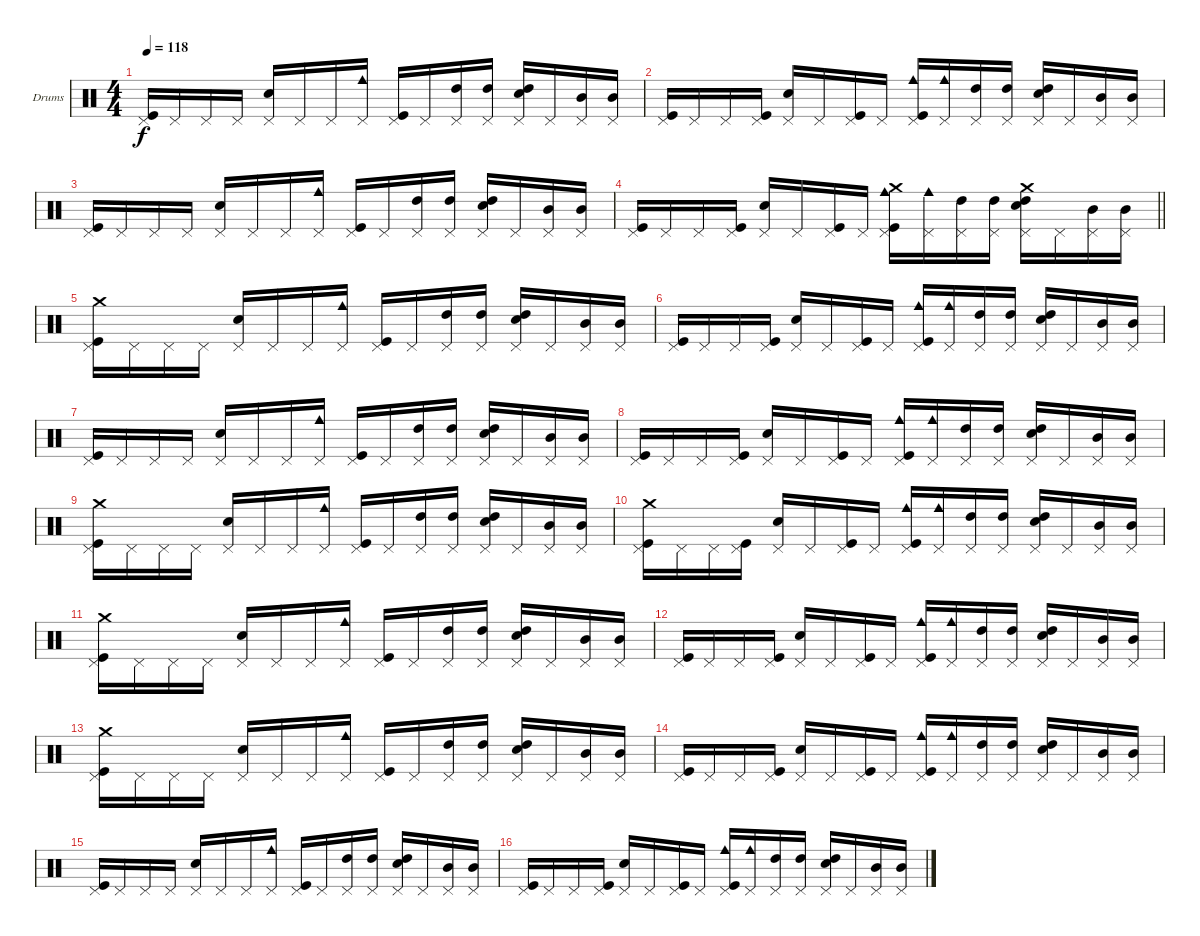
\bracketExtendMode groupsimilarinstruments
\firstSystemTrackNameOrientation horizontal
\otherSystemsTrackNameOrientation horizontal
\track ("Уданые" "Drums") {instrument percussion}
\staff {score}
\articulation defaults
\ts (4 4)
\tempo 118
\clef neutral
\ks c
("Pedal Hi-Hat (hit)" "Kick (hit)").16{dy f} "Pedal Hi-Hat (hit)".16 "Pedal Hi-Hat (hit)".16 "Pedal Hi-Hat (hit)".16 ("Pedal Hi-Hat (hit)" "Snare (hit) 2").16 "Pedal Hi-Hat (hit)".16 "Pedal Hi-Hat (hit)".16 ("Pedal Hi-Hat (hit)" "Cowbell medium (hit)").16 ("Pedal Hi-Hat (hit)" "Kick (hit)").16 "Pedal Hi-Hat (hit)".16 ("Pedal Hi-Hat (hit)" "High Tom (hit)").16 ("Pedal Hi-Hat (hit)" "High Tom (hit)").16 ("Pedal Hi-Hat (hit)" "High Tom (hit)" "Snare (hit) 2").16 "Pedal Hi-Hat (hit)".16 ("Pedal Hi-Hat (hit)" "Mid Tom (hit)").16 ("Pedal Hi-Hat (hit)" "Mid Tom (hit)").16 |
("Pedal Hi-Hat (hit)" "Kick (hit)").16 "Pedal Hi-Hat (hit)".16 "Pedal Hi-Hat (hit)".16 ("Pedal Hi-Hat (hit)" "Kick (hit)").16 ("Pedal Hi-Hat (hit)" "Snare (hit) 2").16 "Pedal Hi-Hat (hit)".16 ("Pedal Hi-Hat (hit)" "Kick (hit)").16 "Pedal Hi-Hat (hit)".16 ("Pedal Hi-Hat (hit)" "Kick (hit)" "Cowbell medium (hit)").16 ("Pedal Hi-Hat (hit)" "Cowbell medium (hit)").16 ("Pedal Hi-Hat (hit)" "High Tom (hit)").16 ("Pedal Hi-Hat (hit)" "High Tom (hit)").16 ("Pedal Hi-Hat (hit)" "High Tom (hit)" "Snare (hit) 2").16 "Pedal Hi-Hat (hit)".16 ("Pedal Hi-Hat (hit)" "Mid Tom (hit)").16 ("Pedal Hi-Hat (hit)" "Mid Tom (hit)").16 |
("Pedal Hi-Hat (hit)" "Kick (hit)").16 "Pedal Hi-Hat (hit)".16 "Pedal Hi-Hat (hit)".16 "Pedal Hi-Hat (hit)".16 ("Pedal Hi-Hat (hit)" "Snare (hit) 2").16 "Pedal Hi-Hat (hit)".16 "Pedal Hi-Hat (hit)".16 ("Pedal Hi-Hat (hit)" "Cowbell medium (hit)").16 ("Pedal Hi-Hat (hit)" "Kick (hit)").16 "Pedal Hi-Hat (hit)".16 ("Pedal Hi-Hat (hit)" "High Tom (hit)").16 ("Pedal Hi-Hat (hit)" "High Tom (hit)").16 ("Pedal Hi-Hat (hit)" "High Tom (hit)" "Snare (hit) 2").16 "Pedal Hi-Hat (hit)".16 ("Pedal Hi-Hat (hit)" "Mid Tom (hit)").16 ("Pedal Hi-Hat (hit)" "Mid Tom (hit)").16 |
\barLineRight lightlight
("Pedal Hi-Hat (hit)" "Kick (hit)").16 "Pedal Hi-Hat (hit)".16 "Pedal Hi-Hat (hit)".16 ("Pedal Hi-Hat (hit)" "Kick (hit)").16 ("Pedal Hi-Hat (hit)" "Snare (hit) 2").16 "Pedal Hi-Hat (hit)".16 ("Pedal Hi-Hat (hit)" "Kick (hit)").16 "Pedal Hi-Hat (hit)".16 ("Pedal Hi-Hat (hit)" "Kick (hit)" "Cowbell medium (hit)" "Crash medium (hit)").16 ("Pedal Hi-Hat (hit)" "Cowbell medium (hit)").16 ("Pedal Hi-Hat (hit)" "High Tom (hit)").16 ("Pedal Hi-Hat (hit)" "High Tom (hit)").16 ("Pedal Hi-Hat (hit)" "High Tom (hit)" "Snare (hit) 2" "Crash medium (hit)").16 "Pedal Hi-Hat (hit)".16 ("Pedal Hi-Hat (hit)" "Mid Tom (hit)").16 ("Pedal Hi-Hat (hit)" "Mid Tom (hit)").16 |
("Pedal Hi-Hat (hit)" "Kick (hit)" "Crash medium (hit)").16 "Pedal Hi-Hat (hit)".16 "Pedal Hi-Hat (hit)".16 "Pedal Hi-Hat (hit)".16 ("Pedal Hi-Hat (hit)" "Snare (hit) 2").16 "Pedal Hi-Hat (hit)".16 "Pedal Hi-Hat (hit)".16 ("Pedal Hi-Hat (hit)" "Cowbell medium (hit)").16 ("Pedal Hi-Hat (hit)" "Kick (hit)").16 "Pedal Hi-Hat (hit)".16 ("Pedal Hi-Hat (hit)" "High Tom (hit)").16 ("Pedal Hi-Hat (hit)" "High Tom (hit)").16 ("Pedal Hi-Hat (hit)" "High Tom (hit)" "Snare (hit) 2").16 "Pedal Hi-Hat (hit)".16 ("Pedal Hi-Hat (hit)" "Mid Tom (hit)").16 ("Pedal Hi-Hat (hit)" "Mid Tom (hit)").16 |
("Pedal Hi-Hat (hit)" "Kick (hit)").16 "Pedal Hi-Hat (hit)".16 "Pedal Hi-Hat (hit)".16 ("Pedal Hi-Hat (hit)" "Kick (hit)").16 ("Pedal Hi-Hat (hit)" "Snare (hit) 2").16 "Pedal Hi-Hat (hit)".16 ("Pedal Hi-Hat (hit)" "Kick (hit)").16 "Pedal Hi-Hat (hit)".16 ("Pedal Hi-Hat (hit)" "Kick (hit)" "Cowbell medium (hit)").16 ("Pedal Hi-Hat (hit)" "Cowbell medium (hit)").16 ("Pedal Hi-Hat (hit)" "High Tom (hit)").16 ("Pedal Hi-Hat (hit)" "High Tom (hit)").16 ("Pedal Hi-Hat (hit)" "High Tom (hit)" "Snare (hit) 2").16 "Pedal Hi-Hat (hit)".16 ("Pedal Hi-Hat (hit)" "Mid Tom (hit)").16 ("Pedal Hi-Hat (hit)" "Mid Tom (hit)").16 |
("Pedal Hi-Hat (hit)" "Kick (hit)").16 "Pedal Hi-Hat (hit)".16 "Pedal Hi-Hat (hit)".16 "Pedal Hi-Hat (hit)".16 ("Pedal Hi-Hat (hit)" "Snare (hit) 2").16 "Pedal Hi-Hat (hit)".16 "Pedal Hi-Hat (hit)".16 ("Pedal Hi-Hat (hit)" "Cowbell medium (hit)").16 ("Pedal Hi-Hat (hit)" "Kick (hit)").16 "Pedal Hi-Hat (hit)".16 ("Pedal Hi-Hat (hit)" "High Tom (hit)").16 ("Pedal Hi-Hat (hit)" "High Tom (hit)").16 ("Pedal Hi-Hat (hit)" "High Tom (hit)" "Snare (hit) 2").16 "Pedal Hi-Hat (hit)".16 ("Pedal Hi-Hat (hit)" "Mid Tom (hit)").16 ("Pedal Hi-Hat (hit)" "Mid Tom (hit)").16 |
("Pedal Hi-Hat (hit)" "Kick (hit)").16 "Pedal Hi-Hat (hit)".16 "Pedal Hi-Hat (hit)".16 ("Pedal Hi-Hat (hit)" "Kick (hit)").16 ("Pedal Hi-Hat (hit)" "Snare (hit) 2").16 "Pedal Hi-Hat (hit)".16 ("Pedal Hi-Hat (hit)" "Kick (hit)").16 "Pedal Hi-Hat (hit)".16 ("Pedal Hi-Hat (hit)" "Kick (hit)" "Cowbell medium (hit)").16 ("Pedal Hi-Hat (hit)" "Cowbell medium (hit)").16 ("Pedal Hi-Hat (hit)" "High Tom (hit)").16 ("Pedal Hi-Hat (hit)" "High Tom (hit)").16 ("Pedal Hi-Hat (hit)" "High Tom (hit)" "Snare (hit) 2").16 "Pedal Hi-Hat (hit)".16 ("Pedal Hi-Hat (hit)" "Mid Tom (hit)").16 ("Pedal Hi-Hat (hit)" "Mid Tom (hit)").16 |
("Pedal Hi-Hat (hit)" "Kick (hit)" "Crash medium (hit)").16 "Pedal Hi-Hat (hit)".16 "Pedal Hi-Hat (hit)".16 "Pedal Hi-Hat (hit)".16 ("Pedal Hi-Hat (hit)" "Snare (hit) 2").16 "Pedal Hi-Hat (hit)".16 "Pedal Hi-Hat (hit)".16 ("Pedal Hi-Hat (hit)" "Cowbell medium (hit)").16 ("Pedal Hi-Hat (hit)" "Kick (hit)").16 "Pedal Hi-Hat (hit)".16 ("Pedal Hi-Hat (hit)" "High Tom (hit)").16 ("Pedal Hi-Hat (hit)" "High Tom (hit)").16 ("Pedal Hi-Hat (hit)" "High Tom (hit)" "Snare (hit) 2").16 "Pedal Hi-Hat (hit)".16 ("Pedal Hi-Hat (hit)" "Mid Tom (hit)").16 ("Pedal Hi-Hat (hit)" "Mid Tom (hit)").16 |
("Pedal Hi-Hat (hit)" "Kick (hit)" "Crash medium (hit)").16 "Pedal Hi-Hat (hit)".16 "Pedal Hi-Hat (hit)".16 ("Pedal Hi-Hat (hit)" "Kick (hit)").16 ("Pedal Hi-Hat (hit)" "Snare (hit) 2").16 "Pedal Hi-Hat (hit)".16 ("Pedal Hi-Hat (hit)" "Kick (hit)").16 "Pedal Hi-Hat (hit)".16 ("Pedal Hi-Hat (hit)" "Kick (hit)" "Cowbell medium (hit)").16 ("Pedal Hi-Hat (hit)" "Cowbell medium (hit)").16 ("Pedal Hi-Hat (hit)" "High Tom (hit)").16 ("Pedal Hi-Hat (hit)" "High Tom (hit)").16 ("Pedal Hi-Hat (hit)" "High Tom (hit)" "Snare (hit) 2").16 "Pedal Hi-Hat (hit)".16 ("Pedal Hi-Hat (hit)" "Mid Tom (hit)").16 ("Pedal Hi-Hat (hit)" "Mid Tom (hit)").16 |
("Pedal Hi-Hat (hit)" "Kick (hit)" "Crash medium (hit)").16 "Pedal Hi-Hat (hit)".16 "Pedal Hi-Hat (hit)".16 "Pedal Hi-Hat (hit)".16 ("Pedal Hi-Hat (hit)" "Snare (hit) 2").16 "Pedal Hi-Hat (hit)".16 "Pedal Hi-Hat (hit)".16 ("Pedal Hi-Hat (hit)" "Cowbell medium (hit)").16 ("Pedal Hi-Hat (hit)" "Kick (hit)").16 "Pedal Hi-Hat (hit)".16 ("Pedal Hi-Hat (hit)" "High Tom (hit)").16 ("Pedal Hi-Hat (hit)" "High Tom (hit)").16 ("Pedal Hi-Hat (hit)" "High Tom (hit)" "Snare (hit) 2").16 "Pedal Hi-Hat (hit)".16 ("Pedal Hi-Hat (hit)" "Mid Tom (hit)").16 ("Pedal Hi-Hat (hit)" "Mid Tom (hit)").16 |
("Pedal Hi-Hat (hit)" "Kick (hit)").16 "Pedal Hi-Hat (hit)".16 "Pedal Hi-Hat (hit)".16 ("Pedal Hi-Hat (hit)" "Kick (hit)").16 ("Pedal Hi-Hat (hit)" "Snare (hit) 2").16 "Pedal Hi-Hat (hit)".16 ("Pedal Hi-Hat (hit)" "Kick (hit)").16 "Pedal Hi-Hat (hit)".16 ("Pedal Hi-Hat (hit)" "Kick (hit)" "Cowbell medium (hit)").16 ("Pedal Hi-Hat (hit)" "Cowbell medium (hit)").16 ("Pedal Hi-Hat (hit)" "High Tom (hit)").16 ("Pedal Hi-Hat (hit)" "High Tom (hit)").16 ("Pedal Hi-Hat (hit)" "High Tom (hit)" "Snare (hit) 2").16 "Pedal Hi-Hat (hit)".16 ("Pedal Hi-Hat (hit)" "Mid Tom (hit)").16 ("Pedal Hi-Hat (hit)" "Mid Tom (hit)").16 |
("Pedal Hi-Hat (hit)" "Kick (hit)" "Crash medium (hit)").16 "Pedal Hi-Hat (hit)".16 "Pedal Hi-Hat (hit)".16 "Pedal Hi-Hat (hit)".16 ("Pedal Hi-Hat (hit)" "Snare (hit) 2").16 "Pedal Hi-Hat (hit)".16 "Pedal Hi-Hat (hit)".16 ("Pedal Hi-Hat (hit)" "Cowbell medium (hit)").16 ("Pedal Hi-Hat (hit)" "Kick (hit)").16 "Pedal Hi-Hat (hit)".16 ("Pedal Hi-Hat (hit)" "High Tom (hit)").16 ("Pedal Hi-Hat (hit)" "High Tom (hit)").16 ("Pedal Hi-Hat (hit)" "High Tom (hit)" "Snare (hit) 2").16 "Pedal Hi-Hat (hit)".16 ("Pedal Hi-Hat (hit)" "Mid Tom (hit)").16 ("Pedal Hi-Hat (hit)" "Mid Tom (hit)").16 |
("Pedal Hi-Hat (hit)" "Kick (hit)").16 "Pedal Hi-Hat (hit)".16 "Pedal Hi-Hat (hit)".16 ("Pedal Hi-Hat (hit)" "Kick (hit)").16 ("Pedal Hi-Hat (hit)" "Snare (hit) 2").16 "Pedal Hi-Hat (hit)".16 ("Pedal Hi-Hat (hit)" "Kick (hit)").16 "Pedal Hi-Hat (hit)".16 ("Pedal Hi-Hat (hit)" "Kick (hit)" "Cowbell medium (hit)").16 ("Pedal Hi-Hat (hit)" "Cowbell medium (hit)").16 ("Pedal Hi-Hat (hit)" "High Tom (hit)").16 ("Pedal Hi-Hat (hit)" "High Tom (hit)").16 ("Pedal Hi-Hat (hit)" "High Tom (hit)" "Snare (hit) 2").16 "Pedal Hi-Hat (hit)".16 ("Pedal Hi-Hat (hit)" "Mid Tom (hit)").16 ("Pedal Hi-Hat (hit)" "Mid Tom (hit)").16 |
("Pedal Hi-Hat (hit)" "Kick (hit)").16 "Pedal Hi-Hat (hit)".16 "Pedal Hi-Hat (hit)".16 "Pedal Hi-Hat (hit)".16 ("Pedal Hi-Hat (hit)" "Snare (hit) 2").16 "Pedal Hi-Hat (hit)".16 "Pedal Hi-Hat (hit)".16 ("Pedal Hi-Hat (hit)" "Cowbell medium (hit)").16 ("Pedal Hi-Hat (hit)" "Kick (hit)").16 "Pedal Hi-Hat (hit)".16 ("Pedal Hi-Hat (hit)" "High Tom (hit)").16 ("Pedal Hi-Hat (hit)" "High Tom (hit)").16 ("Pedal Hi-Hat (hit)" "High Tom (hit)" "Snare (hit) 2").16 "Pedal Hi-Hat (hit)".16 ("Pedal Hi-Hat (hit)" "Mid Tom (hit)").16 ("Pedal Hi-Hat (hit)" "Mid Tom (hit)").16 |
("Pedal Hi-Hat (hit)" "Kick (hit)").16 "Pedal Hi-Hat (hit)".16 "Pedal Hi-Hat (hit)".16 ("Pedal Hi-Hat (hit)" "Kick (hit)").16 ("Pedal Hi-Hat (hit)" "Snare (hit) 2").16 "Pedal Hi-Hat (hit)".16 ("Pedal Hi-Hat (hit)" "Kick (hit)").16 "Pedal Hi-Hat (hit)".16 ("Pedal Hi-Hat (hit)" "Kick (hit)" "Cowbell medium (hit)").16 ("Pedal Hi-Hat (hit)" "Cowbell medium (hit)").16 ("Pedal Hi-Hat (hit)" "High Tom (hit)").16 ("Pedal Hi-Hat (hit)" "High Tom (hit)").16 ("Pedal Hi-Hat (hit)" "High Tom (hit)" "Snare (hit) 2").16 "Pedal Hi-Hat (hit)".16 ("Pedal Hi-Hat (hit)" "Mid Tom (hit)").16 ("Pedal Hi-Hat (hit)" "Mid Tom (hit)").16
